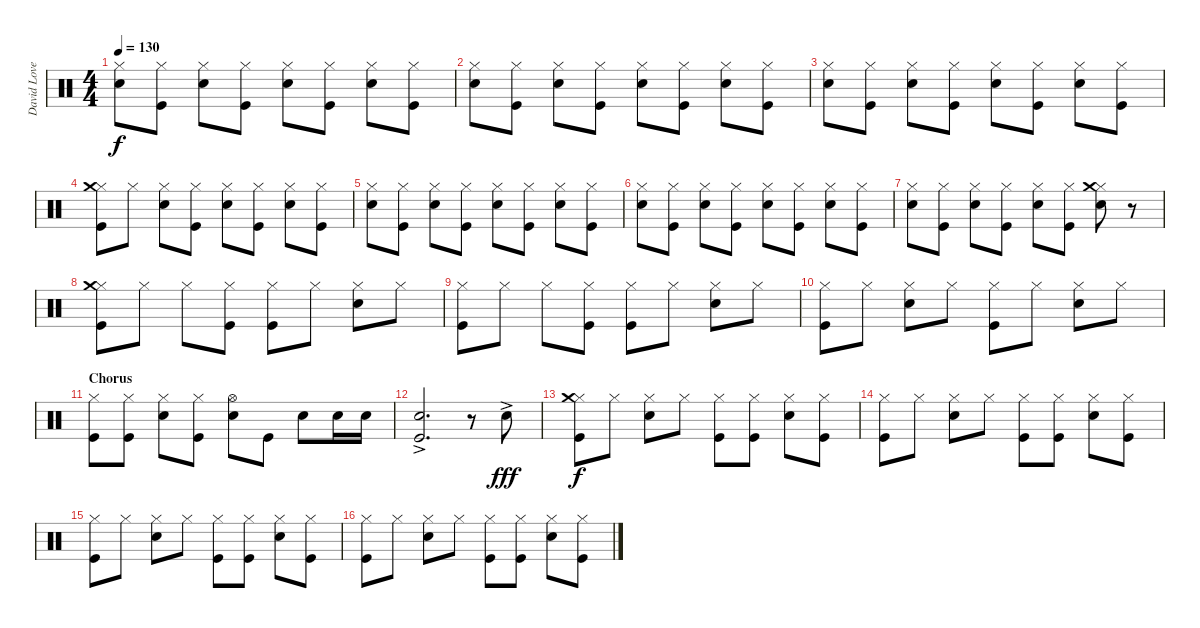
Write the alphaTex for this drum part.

\track ("David Lovering" "David Love") {instrument percussion}
\staff {score}
\articulation defaults
\ts (4 4)
\tempo 130
\clef neutral
\ks c
("Hi-Hat (closed)" "Snare (hit) 2").8{dy f} ("Hi-Hat (closed)" "Kick (hit)").8 ("Hi-Hat (closed)" "Snare (hit) 2").8 ("Hi-Hat (closed)" "Kick (hit)").8 ("Hi-Hat (closed)" "Snare (hit) 2").8 ("Hi-Hat (closed)" "Kick (hit)").8 ("Hi-Hat (closed)" "Snare (hit) 2").8 ("Hi-Hat (closed)" "Kick (hit)").8 |
("Hi-Hat (closed)" "Snare (hit) 2").8 ("Hi-Hat (closed)" "Kick (hit)").8 ("Hi-Hat (closed)" "Snare (hit) 2").8 ("Hi-Hat (closed)" "Kick (hit)").8 ("Hi-Hat (closed)" "Snare (hit) 2").8 ("Hi-Hat (closed)" "Kick (hit)").8 ("Hi-Hat (closed)" "Snare (hit) 2").8 ("Hi-Hat (closed)" "Kick (hit)").8 |
("Hi-Hat (closed)" "Snare (hit) 2").8 ("Hi-Hat (closed)" "Kick (hit)").8 ("Hi-Hat (closed)" "Snare (hit) 2").8 ("Hi-Hat (closed)" "Kick (hit)").8 ("Hi-Hat (closed)" "Snare (hit) 2").8 ("Hi-Hat (closed)" "Kick (hit)").8 ("Hi-Hat (closed)" "Snare (hit) 2").8 ("Hi-Hat (closed)" "Kick (hit)").8 |
("Hi-Hat (closed)" "Crash medium (hit)" "Kick (hit)").8 "Hi-Hat (closed)".8 ("Hi-Hat (closed)" "Snare (hit) 2").8 ("Hi-Hat (closed)" "Kick (hit)").8 ("Hi-Hat (closed)" "Snare (hit) 2").8 ("Hi-Hat (closed)" "Kick (hit)").8 ("Hi-Hat (closed)" "Snare (hit) 2").8 ("Hi-Hat (closed)" "Kick (hit)").8 |
("Hi-Hat (closed)" "Snare (hit) 2").8 ("Hi-Hat (closed)" "Kick (hit)").8 ("Hi-Hat (closed)" "Snare (hit) 2").8 ("Hi-Hat (closed)" "Kick (hit)").8 ("Hi-Hat (closed)" "Snare (hit) 2").8 ("Hi-Hat (closed)" "Kick (hit)").8 ("Hi-Hat (closed)" "Snare (hit) 2").8 ("Hi-Hat (closed)" "Kick (hit)").8 |
("Hi-Hat (closed)" "Snare (hit) 2").8 ("Hi-Hat (closed)" "Kick (hit)").8 ("Hi-Hat (closed)" "Snare (hit) 2").8 ("Hi-Hat (closed)" "Kick (hit)").8 ("Hi-Hat (closed)" "Snare (hit) 2").8 ("Hi-Hat (closed)" "Kick (hit)").8 ("Hi-Hat (closed)" "Snare (hit) 2").8 ("Hi-Hat (closed)" "Kick (hit)").8 |
("Hi-Hat (closed)" "Snare (hit) 2").8 ("Hi-Hat (closed)" "Kick (hit)").8 ("Hi-Hat (closed)" "Snare (hit) 2").8 ("Hi-Hat (closed)" "Kick (hit)").8 ("Hi-Hat (closed)" "Snare (hit) 2").8 ("Hi-Hat (closed)" "Kick (hit)").8 ("Hi-Hat (closed)" "Crash medium (hit)" "Snare (hit) 2").8 r.8 |
\section ("" "")
("Hi-Hat (closed)" "Crash medium (hit)" "Kick (hit)").8 "Hi-Hat (closed)".8 "Hi-Hat (closed)".8 ("Hi-Hat (closed)" "Kick (hit)").8 ("Hi-Hat (closed)" "Kick (hit)").8 "Hi-Hat (closed)".8 ("Hi-Hat (closed)" "Snare (hit) 2").8 "Hi-Hat (closed)".8 |
("Hi-Hat (closed)" "Kick (hit)").8 "Hi-Hat (closed)".8 "Hi-Hat (closed)".8 ("Hi-Hat (closed)" "Kick (hit)").8 ("Hi-Hat (closed)" "Kick (hit)").8 "Hi-Hat (closed)".8 ("Hi-Hat (closed)" "Snare (hit) 2").8 "Hi-Hat (closed)".8 |
("Hi-Hat (closed)" "Kick (hit)").8 "Hi-Hat (closed)".8 ("Hi-Hat (closed)" "Snare (hit) 2").8 "Hi-Hat (closed)".8 ("Hi-Hat (closed)" "Kick (hit)").8 "Hi-Hat (closed)".8 ("Hi-Hat (closed)" "Snare (hit) 2").8 "Hi-Hat (closed)".8 |
\section ("" "Chorus")
("Hi-Hat (closed)" "Kick (hit)").8 ("Hi-Hat (closed)" "Kick (hit)").8 ("Hi-Hat (closed)" "Snare (hit) 2").8 ("Hi-Hat (closed)" "Kick (hit)").8 ("Hi-Hat (open)" "Snare (hit) 2").8 "Kick (hit)".8 "Snare (hit) 2".8 "Snare (hit) 2".16 "Snare (hit) 2".16 |
("Snare (hit) 2"{ac} "Kick (hit)").2{d} r.8 "Snare (hit) 2"{ac}.8{dy fff} |
("Hi-Hat (closed)" "Crash medium (hit)" "Kick (hit)").8{dy f} "Hi-Hat (closed)".8 ("Hi-Hat (closed)" "Snare (hit) 2").8 "Hi-Hat (closed)".8 ("Hi-Hat (closed)" "Kick (hit)").8 ("Hi-Hat (closed)" "Kick (hit)").8 ("Hi-Hat (closed)" "Snare (hit) 2").8 ("Hi-Hat (closed)" "Kick (hit)").8 |
("Hi-Hat (closed)" "Kick (hit)").8 "Hi-Hat (closed)".8 ("Hi-Hat (closed)" "Snare (hit) 2").8 "Hi-Hat (closed)".8 ("Hi-Hat (closed)" "Kick (hit)").8 ("Hi-Hat (closed)" "Kick (hit)").8 ("Hi-Hat (closed)" "Snare (hit) 2").8 ("Hi-Hat (closed)" "Kick (hit)").8 |
("Hi-Hat (closed)" "Kick (hit)").8 "Hi-Hat (closed)".8 ("Hi-Hat (closed)" "Snare (hit) 2").8 "Hi-Hat (closed)".8 ("Hi-Hat (closed)" "Kick (hit)").8 ("Hi-Hat (closed)" "Kick (hit)").8 ("Hi-Hat (closed)" "Snare (hit) 2").8 ("Hi-Hat (closed)" "Kick (hit)").8 |
("Hi-Hat (closed)" "Kick (hit)").8 "Hi-Hat (closed)".8 ("Hi-Hat (closed)" "Snare (hit) 2").8 "Hi-Hat (closed)".8 ("Hi-Hat (closed)" "Kick (hit)").8 ("Hi-Hat (closed)" "Kick (hit)").8 ("Hi-Hat (closed)" "Snare (hit) 2").8 ("Hi-Hat (closed)" "Kick (hit)").8
